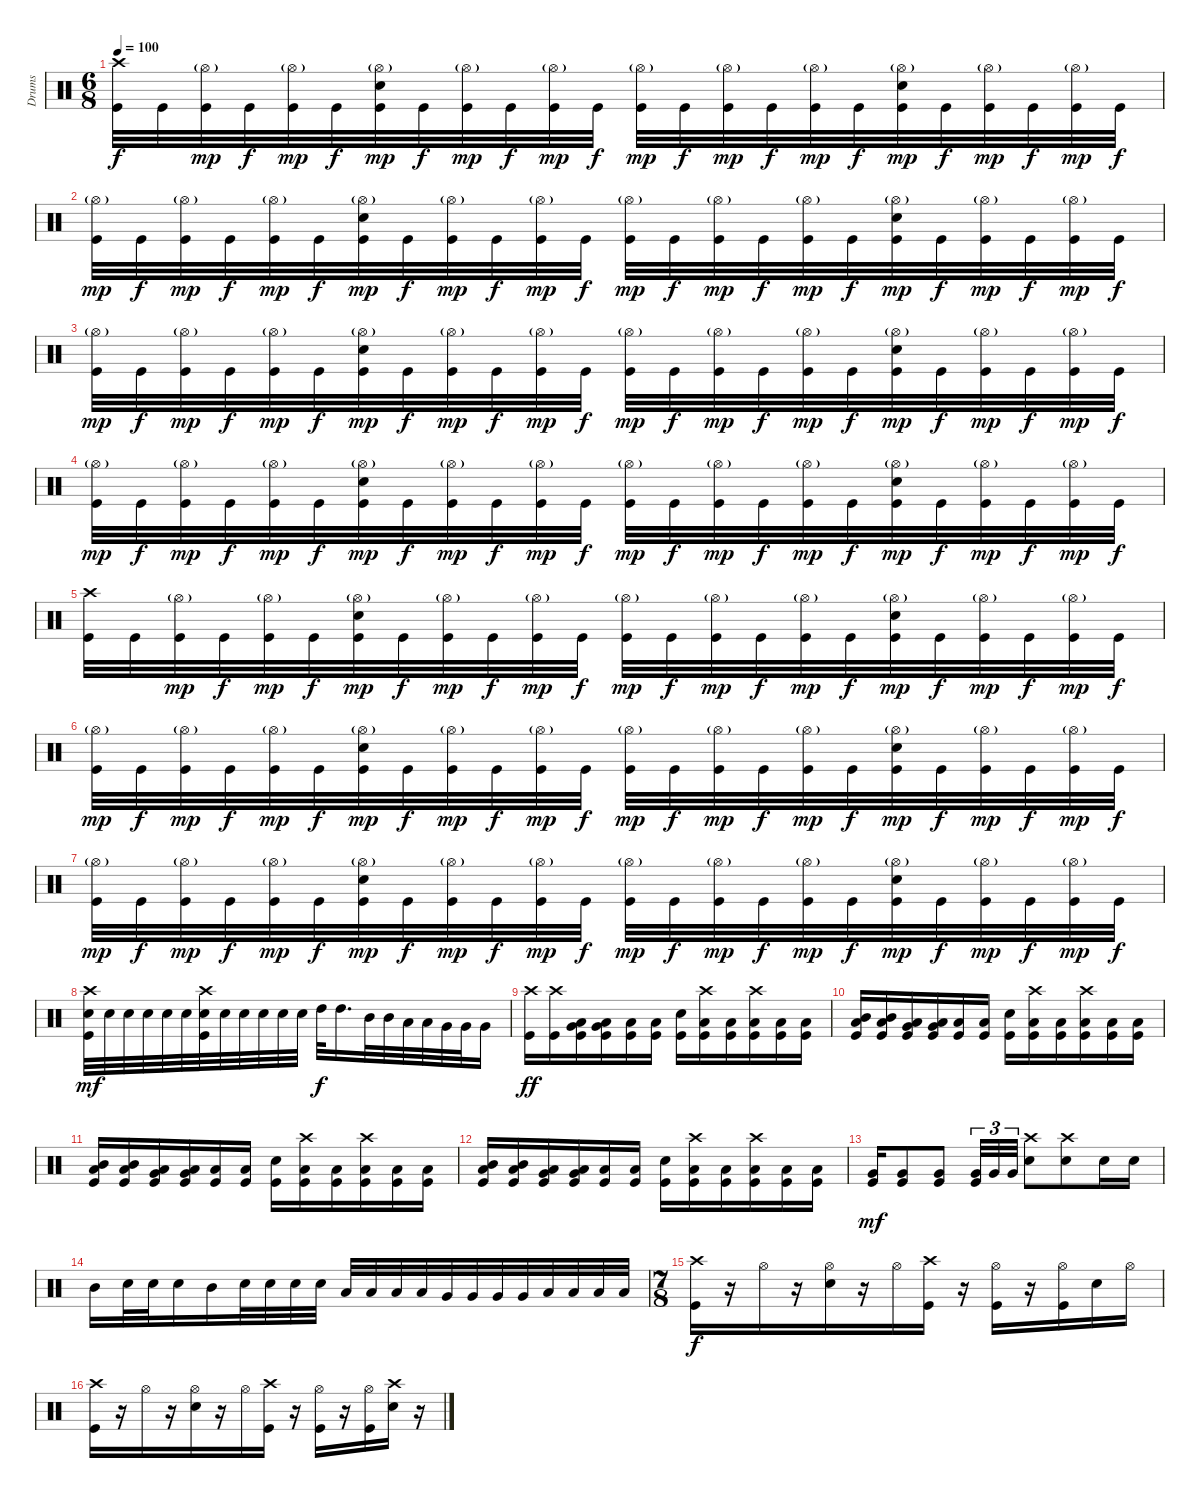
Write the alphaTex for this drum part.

\track ("Drums" "Drums") {instrument percussion}
\staff {score}
\articulation defaults
\ts (6 8)
\tempo 100
\clef neutral
\ks c
("Crash high (hit)" "Kick (hit)").32{dy f} "Kick (hit)".32 ("Hi-Hat (open)"{g} "Kick (hit)").32{dy mp} "Kick (hit)".32{dy f} ("Hi-Hat (open)"{g} "Kick (hit)").32{dy mp} "Kick (hit)".32{dy f} ("Hi-Hat (open)"{g} "Electric Snare (hit)" "Kick (hit)").32{dy mp} "Kick (hit)".32{dy f} ("Hi-Hat (open)"{g} "Kick (hit)").32{dy mp} "Kick (hit)".32{dy f} ("Hi-Hat (open)"{g} "Kick (hit)").32{dy mp} "Kick (hit)".32{dy f} ("Hi-Hat (open)"{g} "Kick (hit)").32{dy mp} "Kick (hit)".32{dy f} ("Hi-Hat (open)"{g} "Kick (hit)").32{dy mp} "Kick (hit)".32{dy f} ("Hi-Hat (open)"{g} "Kick (hit)").32{dy mp} "Kick (hit)".32{dy f} ("Hi-Hat (open)"{g} "Electric Snare (hit)" "Kick (hit)").32{dy mp} "Kick (hit)".32{dy f} ("Hi-Hat (open)"{g} "Kick (hit)").32{dy mp} "Kick (hit)".32{dy f} ("Hi-Hat (open)"{g} "Kick (hit)").32{dy mp} "Kick (hit)".32{dy f} |
("Hi-Hat (open)"{g} "Kick (hit)").32{dy mp} "Kick (hit)".32{dy f} ("Hi-Hat (open)"{g} "Kick (hit)").32{dy mp} "Kick (hit)".32{dy f} ("Hi-Hat (open)"{g} "Kick (hit)").32{dy mp} "Kick (hit)".32{dy f} ("Hi-Hat (open)"{g} "Electric Snare (hit)" "Kick (hit)").32{dy mp} "Kick (hit)".32{dy f} ("Hi-Hat (open)"{g} "Kick (hit)").32{dy mp} "Kick (hit)".32{dy f} ("Hi-Hat (open)"{g} "Kick (hit)").32{dy mp} "Kick (hit)".32{dy f} ("Hi-Hat (open)"{g} "Kick (hit)").32{dy mp} "Kick (hit)".32{dy f} ("Hi-Hat (open)"{g} "Kick (hit)").32{dy mp} "Kick (hit)".32{dy f} ("Hi-Hat (open)"{g} "Kick (hit)").32{dy mp} "Kick (hit)".32{dy f} ("Hi-Hat (open)"{g} "Electric Snare (hit)" "Kick (hit)").32{dy mp} "Kick (hit)".32{dy f} ("Hi-Hat (open)"{g} "Kick (hit)").32{dy mp} "Kick (hit)".32{dy f} ("Hi-Hat (open)"{g} "Kick (hit)").32{dy mp} "Kick (hit)".32{dy f} |
("Hi-Hat (open)"{g} "Kick (hit)").32{dy mp} "Kick (hit)".32{dy f} ("Hi-Hat (open)"{g} "Kick (hit)").32{dy mp} "Kick (hit)".32{dy f} ("Hi-Hat (open)"{g} "Kick (hit)").32{dy mp} "Kick (hit)".32{dy f} ("Hi-Hat (open)"{g} "Electric Snare (hit)" "Kick (hit)").32{dy mp} "Kick (hit)".32{dy f} ("Hi-Hat (open)"{g} "Kick (hit)").32{dy mp} "Kick (hit)".32{dy f} ("Hi-Hat (open)"{g} "Kick (hit)").32{dy mp} "Kick (hit)".32{dy f} ("Hi-Hat (open)"{g} "Kick (hit)").32{dy mp} "Kick (hit)".32{dy f} ("Hi-Hat (open)"{g} "Kick (hit)").32{dy mp} "Kick (hit)".32{dy f} ("Hi-Hat (open)"{g} "Kick (hit)").32{dy mp} "Kick (hit)".32{dy f} ("Hi-Hat (open)"{g} "Electric Snare (hit)" "Kick (hit)").32{dy mp} "Kick (hit)".32{dy f} ("Hi-Hat (open)"{g} "Kick (hit)").32{dy mp} "Kick (hit)".32{dy f} ("Hi-Hat (open)"{g} "Kick (hit)").32{dy mp} "Kick (hit)".32{dy f} |
("Hi-Hat (open)"{g} "Kick (hit)").32{dy mp} "Kick (hit)".32{dy f} ("Hi-Hat (open)"{g} "Kick (hit)").32{dy mp} "Kick (hit)".32{dy f} ("Hi-Hat (open)"{g} "Kick (hit)").32{dy mp} "Kick (hit)".32{dy f} ("Hi-Hat (open)"{g} "Electric Snare (hit)" "Kick (hit)").32{dy mp} "Kick (hit)".32{dy f} ("Hi-Hat (open)"{g} "Kick (hit)").32{dy mp} "Kick (hit)".32{dy f} ("Hi-Hat (open)"{g} "Kick (hit)").32{dy mp} "Kick (hit)".32{dy f} ("Hi-Hat (open)"{g} "Kick (hit)").32{dy mp} "Kick (hit)".32{dy f} ("Hi-Hat (open)"{g} "Kick (hit)").32{dy mp} "Kick (hit)".32{dy f} ("Hi-Hat (open)"{g} "Kick (hit)").32{dy mp} "Kick (hit)".32{dy f} ("Hi-Hat (open)"{g} "Electric Snare (hit)" "Kick (hit)").32{dy mp} "Kick (hit)".32{dy f} ("Hi-Hat (open)"{g} "Kick (hit)").32{dy mp} "Kick (hit)".32{dy f} ("Hi-Hat (open)"{g} "Kick (hit)").32{dy mp} "Kick (hit)".32{dy f} |
("Crash high (hit)" "Kick (hit)").32 "Kick (hit)".32 ("Hi-Hat (open)"{g} "Kick (hit)").32{dy mp} "Kick (hit)".32{dy f} ("Hi-Hat (open)"{g} "Kick (hit)").32{dy mp} "Kick (hit)".32{dy f} ("Hi-Hat (open)"{g} "Electric Snare (hit)" "Kick (hit)").32{dy mp} "Kick (hit)".32{dy f} ("Hi-Hat (open)"{g} "Kick (hit)").32{dy mp} "Kick (hit)".32{dy f} ("Hi-Hat (open)"{g} "Kick (hit)").32{dy mp} "Kick (hit)".32{dy f} ("Hi-Hat (open)"{g} "Kick (hit)").32{dy mp} "Kick (hit)".32{dy f} ("Hi-Hat (open)"{g} "Kick (hit)").32{dy mp} "Kick (hit)".32{dy f} ("Hi-Hat (open)"{g} "Kick (hit)").32{dy mp} "Kick (hit)".32{dy f} ("Hi-Hat (open)"{g} "Electric Snare (hit)" "Kick (hit)").32{dy mp} "Kick (hit)".32{dy f} ("Hi-Hat (open)"{g} "Kick (hit)").32{dy mp} "Kick (hit)".32{dy f} ("Hi-Hat (open)"{g} "Kick (hit)").32{dy mp} "Kick (hit)".32{dy f} |
("Hi-Hat (open)"{g} "Kick (hit)").32{dy mp} "Kick (hit)".32{dy f} ("Hi-Hat (open)"{g} "Kick (hit)").32{dy mp} "Kick (hit)".32{dy f} ("Hi-Hat (open)"{g} "Kick (hit)").32{dy mp} "Kick (hit)".32{dy f} ("Hi-Hat (open)"{g} "Electric Snare (hit)" "Kick (hit)").32{dy mp} "Kick (hit)".32{dy f} ("Hi-Hat (open)"{g} "Kick (hit)").32{dy mp} "Kick (hit)".32{dy f} ("Hi-Hat (open)"{g} "Kick (hit)").32{dy mp} "Kick (hit)".32{dy f} ("Hi-Hat (open)"{g} "Kick (hit)").32{dy mp} "Kick (hit)".32{dy f} ("Hi-Hat (open)"{g} "Kick (hit)").32{dy mp} "Kick (hit)".32{dy f} ("Hi-Hat (open)"{g} "Kick (hit)").32{dy mp} "Kick (hit)".32{dy f} ("Hi-Hat (open)"{g} "Electric Snare (hit)" "Kick (hit)").32{dy mp} "Kick (hit)".32{dy f} ("Hi-Hat (open)"{g} "Kick (hit)").32{dy mp} "Kick (hit)".32{dy f} ("Hi-Hat (open)"{g} "Kick (hit)").32{dy mp} "Kick (hit)".32{dy f} |
("Hi-Hat (open)"{g} "Kick (hit)").32{dy mp} "Kick (hit)".32{dy f} ("Hi-Hat (open)"{g} "Kick (hit)").32{dy mp} "Kick (hit)".32{dy f} ("Hi-Hat (open)"{g} "Kick (hit)").32{dy mp} "Kick (hit)".32{dy f} ("Hi-Hat (open)"{g} "Electric Snare (hit)" "Kick (hit)").32{dy mp} "Kick (hit)".32{dy f} ("Hi-Hat (open)"{g} "Kick (hit)").32{dy mp} "Kick (hit)".32{dy f} ("Hi-Hat (open)"{g} "Kick (hit)").32{dy mp} "Kick (hit)".32{dy f} ("Hi-Hat (open)"{g} "Kick (hit)").32{dy mp} "Kick (hit)".32{dy f} ("Hi-Hat (open)"{g} "Kick (hit)").32{dy mp} "Kick (hit)".32{dy f} ("Hi-Hat (open)"{g} "Kick (hit)").32{dy mp} "Kick (hit)".32{dy f} ("Hi-Hat (open)"{g} "Electric Snare (hit)" "Kick (hit)").32{dy mp} "Kick (hit)".32{dy f} ("Hi-Hat (open)"{g} "Kick (hit)").32{dy mp} "Kick (hit)".32{dy f} ("Hi-Hat (open)"{g} "Kick (hit)").32{dy mp} "Kick (hit)".32{dy f} |
("Crash high (hit)" "Electric Snare (hit)" "Kick (hit)").32{dy mf} "Electric Snare (hit)".32 "Electric Snare (hit)".32 "Electric Snare (hit)".32 "Electric Snare (hit)".32 "Electric Snare (hit)".32 ("Crash high (hit)" "Electric Snare (hit)" "Kick (hit)").32 "Electric Snare (hit)".32 "Electric Snare (hit)".32 "Electric Snare (hit)".32 "Electric Snare (hit)".32 "Electric Snare (hit)".32 "High Tom (hit)".32{dy f} "High Tom (hit)".16{d} "Mid Tom (hit)".32 "Mid Tom (hit)".32 "Low Tom (hit)".32 "Low Tom (hit)".32 "Very Low Tom (hit)".32 "Very Low Tom (hit)".32 "Very Low Tom (hit)".16 |
("Crash high (hit)" "Kick (hit)").16{dy ff volume 11} ("Crash high (hit)" "Kick (hit)").16 ("Low Tom (hit)" "Very Low Tom (hit)" "Kick (hit)").16 ("Low Tom (hit)" "Very Low Tom (hit)" "Kick (hit)").16 ("Low Floor Tom (hit)" "Kick (hit)").16 ("Low Floor Tom (hit)" "Kick (hit)").16 ("Electric Snare (hit)" "Kick (hit)").16 ("Crash high (hit)" "Low Tom (hit)" "Kick (hit)").16 ("Low Tom (hit)" "Kick (hit)").16 ("Crash high (hit)" "Low Tom (hit)" "Kick (hit)").16 ("Low Tom (hit)" "Kick (hit)").16 ("Low Tom (hit)" "Kick (hit)").16 |
("Mid Tom (hit)" "Low Tom (hit)" "Kick (hit)").16 ("Mid Tom (hit)" "Low Tom (hit)" "Kick (hit)").16 ("Low Tom (hit)" "Very Low Tom (hit)" "Kick (hit)").16 ("Low Tom (hit)" "Very Low Tom (hit)" "Kick (hit)").16 ("Low Floor Tom (hit)" "Kick (hit)").16 ("Low Floor Tom (hit)" "Kick (hit)").16 ("Electric Snare (hit)" "Kick (hit)").16 ("Crash high (hit)" "Low Tom (hit)" "Kick (hit)").16 ("Low Tom (hit)" "Kick (hit)").16 ("Crash high (hit)" "Low Tom (hit)" "Kick (hit)").16 ("Low Tom (hit)" "Kick (hit)").16 ("Low Tom (hit)" "Kick (hit)").16 |
("Mid Tom (hit)" "Low Tom (hit)" "Kick (hit)").16 ("Mid Tom (hit)" "Low Tom (hit)" "Kick (hit)").16 ("Low Tom (hit)" "Very Low Tom (hit)" "Kick (hit)").16 ("Low Tom (hit)" "Very Low Tom (hit)" "Kick (hit)").16 ("Low Floor Tom (hit)" "Kick (hit)").16 ("Low Floor Tom (hit)" "Kick (hit)").16 ("Electric Snare (hit)" "Kick (hit)").16 ("Crash high (hit)" "Low Tom (hit)" "Kick (hit)").16 ("Low Tom (hit)" "Kick (hit)").16 ("Crash high (hit)" "Low Tom (hit)" "Kick (hit)").16 ("Low Tom (hit)" "Kick (hit)").16 ("Low Tom (hit)" "Kick (hit)").16 |
("Mid Tom (hit)" "Low Tom (hit)" "Kick (hit)").16 ("Mid Tom (hit)" "Low Tom (hit)" "Kick (hit)").16 ("Low Tom (hit)" "Very Low Tom (hit)" "Kick (hit)").16 ("Low Tom (hit)" "Very Low Tom (hit)" "Kick (hit)").16 ("Low Floor Tom (hit)" "Kick (hit)").16 ("Low Floor Tom (hit)" "Kick (hit)").16 ("Electric Snare (hit)" "Kick (hit)").16 ("Crash high (hit)" "Low Tom (hit)" "Kick (hit)").16 ("Low Tom (hit)" "Kick (hit)").16 ("Crash high (hit)" "Low Tom (hit)" "Kick (hit)").16 ("Low Tom (hit)" "Kick (hit)").16 ("Low Tom (hit)" "Kick (hit)").16 |
("Very Low Tom (hit)" "Kick (hit)").16{dy mf volume 12} ("Very Low Tom (hit)" "Kick (hit)").8 ("Very Low Tom (hit)" "Kick (hit)").8 ("Very Low Tom (hit)" "Kick (hit)").32{tu (3 2)} "Very Low Tom (hit)".32{tu (3 2)} "Very Low Tom (hit)".32{tu (3 2)} ("Crash high (hit)" "Electric Snare (hit)").8 ("Crash high (hit)" "Electric Snare (hit)").8 "Electric Snare (hit)".16 "Electric Snare (hit)".16 |
"Mid Tom (hit)".16 "Electric Snare (hit)".32 "Electric Snare (hit)".32 "Electric Snare (hit)".16 "Mid Tom (hit)".16 "Electric Snare (hit)".32 "Electric Snare (hit)".32 "Electric Snare (hit)".32 "Electric Snare (hit)".32 "Low Tom (hit)".32 "Low Tom (hit)".32 "Low Tom (hit)".32 "Low Tom (hit)".32 "Very Low Tom (hit)".32 "Very Low Tom (hit)".32 "Very Low Tom (hit)".32 "Very Low Tom (hit)".32 "Low Floor Tom (hit)".32 "Low Floor Tom (hit)".32 "Low Floor Tom (hit)".32 "Low Floor Tom (hit)".32 |
\ts (7 8)
("Crash high (hit)" "Kick (hit)").16{dy f} r.16 "Hi-Hat (open)".16 r.16 ("Hi-Hat (open)" "Electric Snare (hit)").16 r.16 "Hi-Hat (open)".16 ("Crash high (hit)" "Kick (hit)").16 r.16 ("Hi-Hat (open)" "Kick (hit)").16 r.16 ("Hi-Hat (open)" "Kick (hit)").16 "Electric Snare (hit)".16 "Hi-Hat (open)".16 |
("Crash high (hit)" "Kick (hit)").16 r.16 "Hi-Hat (open)".16 r.16 ("Hi-Hat (open)" "Electric Snare (hit)").16 r.16 "Hi-Hat (open)".16 ("Crash high (hit)" "Kick (hit)").16 r.16 ("Hi-Hat (open)" "Kick (hit)").16 r.16 ("Hi-Hat (open)" "Kick (hit)").16 ("Crash high (hit)" "Electric Snare (hit)").16 r.16
